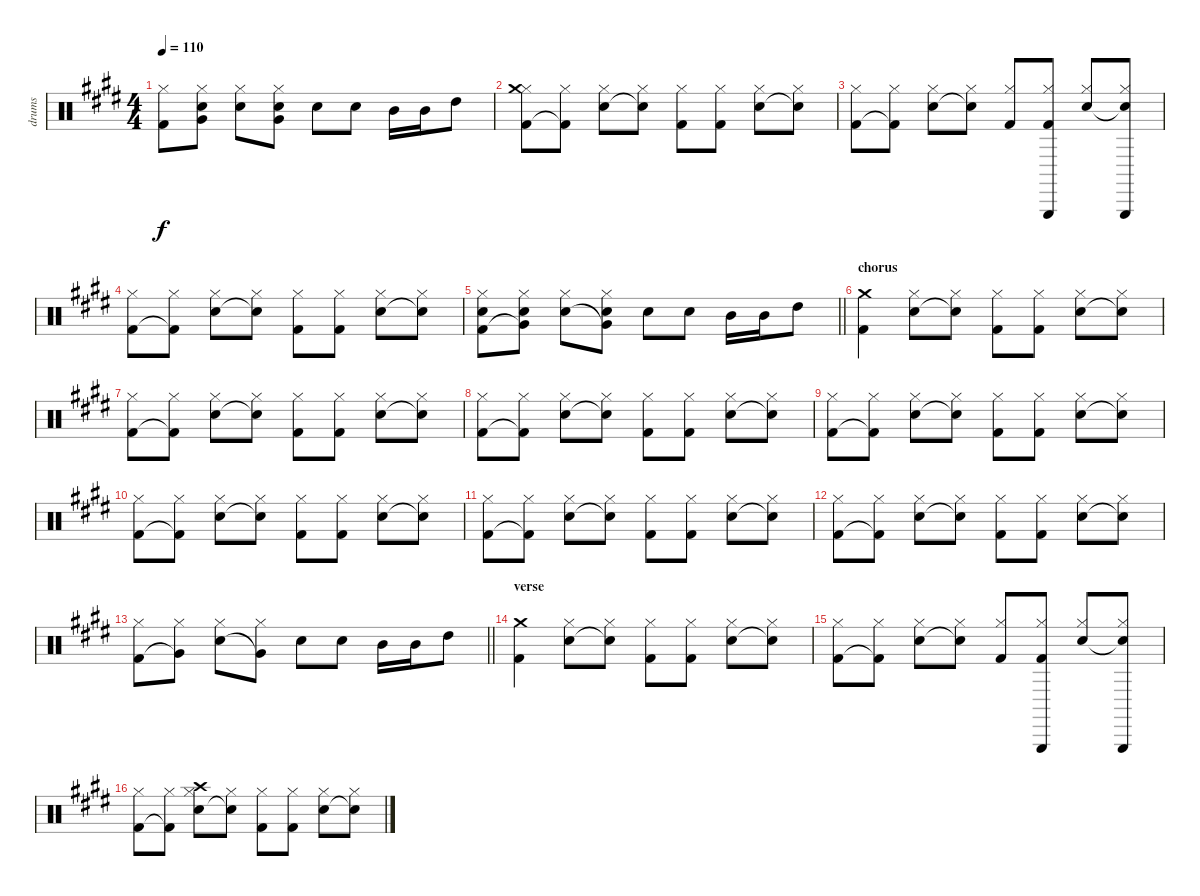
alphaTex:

\track ("drums" "drums") {instrument percussion}
\staff {score}
\articulation defaults
\ts (4 4)
\tempo 110
\clef neutral
\ks e
("Kick (hit) 2" "Hi-Hat (closed)").8{dy f} ("Very Low Tom (hit)" "Hi-Hat (closed)" "Electric Snare (hit)").8 ("Electric Snare (hit)" "Hi-Hat (closed)").8 ("Very Low Tom (hit)" "Hi-Hat (closed)" "Electric Snare (hit)").8 "Electric Snare (hit)".8 "Electric Snare (hit)".8 "Mid Tom (hit)".16 "Mid Tom (hit)".16 "High Tom (hit)".8 |
("Kick (hit) 2" "Hi-Hat (closed)" "Crash medium (hit)").8 ("Kick (hit) 2"{t} "Hi-Hat (closed)").8 ("Electric Snare (hit)" "Hi-Hat (closed)").8 ("Snare (hit)"{t} "Hi-Hat (closed)").8 ("Kick (hit) 2" "Hi-Hat (closed)").8 ("Kick (hit) 2" "Hi-Hat (closed)").8 ("Electric Snare (hit)" "Hi-Hat (closed)").8 ("Snare (hit)"{t} "Hi-Hat (closed)").8 |
("Kick (hit) 2" "Hi-Hat (closed)").8 ("Kick (hit) 2"{t} "Hi-Hat (closed)").8 ("Electric Snare (hit)" "Hi-Hat (closed)").8 ("Snare (hit)"{t} "Hi-Hat (closed)").8 ("Kick (hit) 2" "Hi-Hat (closed)").8 ("Kick (hit) 2" "Hi-Hat (closed)" "Triangle (hit)").8 ("Electric Snare (hit)" "Hi-Hat (closed)").8 ("Snare (hit)"{t} "Hi-Hat (closed)" "Triangle (hit)").8 |
("Kick (hit) 2" "Hi-Hat (closed)").8 ("Kick (hit) 2"{t} "Hi-Hat (closed)").8 ("Electric Snare (hit)" "Hi-Hat (closed)").8 ("Snare (hit)"{t} "Hi-Hat (closed)").8 ("Kick (hit) 2" "Hi-Hat (closed)").8 ("Kick (hit) 2" "Hi-Hat (closed)").8 ("Electric Snare (hit)" "Hi-Hat (closed)").8 ("Snare (hit)"{t} "Hi-Hat (closed)").8 |
\barLineRight lightlight
("Kick (hit) 2" "Hi-Hat (closed)" "Electric Snare (hit)").8 ("Very Low Tom (hit)"{t} "Hi-Hat (closed)" "Electric Snare (hit)").8 ("Electric Snare (hit)" "Hi-Hat (closed)").8 ("Very Low Tom (hit)"{t} "Hi-Hat (closed)" "Electric Snare (hit)").8 "Electric Snare (hit)".8 "Electric Snare (hit)".8 "Mid Tom (hit)".16 "Mid Tom (hit)".16 "High Tom (hit)".8 |
\section ("" "chorus")
("Kick (hit) 2" "Crash medium (hit)").4 ("Electric Snare (hit)" "Hi-Hat (closed)").8 ("Snare (hit)"{t} "Hi-Hat (closed)").8 ("Kick (hit) 2" "Hi-Hat (closed)").8 ("Kick (hit) 2" "Hi-Hat (closed)").8 ("Electric Snare (hit)" "Hi-Hat (closed)").8 ("Snare (hit)"{t} "Hi-Hat (closed)").8 |
("Kick (hit) 2" "Hi-Hat (closed)").8 ("Kick (hit) 2"{t} "Hi-Hat (closed)").8 ("Electric Snare (hit)" "Hi-Hat (closed)").8 ("Snare (hit)"{t} "Hi-Hat (closed)").8 ("Kick (hit) 2" "Hi-Hat (closed)").8 ("Kick (hit) 2" "Hi-Hat (closed)").8 ("Electric Snare (hit)" "Hi-Hat (closed)").8 ("Snare (hit)"{t} "Hi-Hat (closed)").8 |
("Kick (hit) 2" "Hi-Hat (closed)").8 ("Kick (hit) 2"{t} "Hi-Hat (closed)").8 ("Electric Snare (hit)" "Hi-Hat (closed)").8 ("Snare (hit)"{t} "Hi-Hat (closed)").8 ("Kick (hit) 2" "Hi-Hat (closed)").8 ("Kick (hit) 2" "Hi-Hat (closed)").8 ("Electric Snare (hit)" "Hi-Hat (closed)").8 ("Snare (hit)"{t} "Hi-Hat (closed)").8 |
("Kick (hit) 2" "Hi-Hat (closed)").8 ("Kick (hit) 2"{t} "Hi-Hat (closed)").8 ("Electric Snare (hit)" "Hi-Hat (closed)").8 ("Snare (hit)"{t} "Hi-Hat (closed)").8 ("Kick (hit) 2" "Hi-Hat (closed)").8 ("Kick (hit) 2" "Hi-Hat (closed)").8 ("Electric Snare (hit)" "Hi-Hat (closed)").8 ("Snare (hit)"{t} "Hi-Hat (closed)").8 |
("Kick (hit) 2" "Hi-Hat (closed)").8 ("Kick (hit) 2"{t} "Hi-Hat (closed)").8 ("Electric Snare (hit)" "Hi-Hat (closed)").8 ("Snare (hit)"{t} "Hi-Hat (closed)").8 ("Kick (hit) 2" "Hi-Hat (closed)").8 ("Kick (hit) 2" "Hi-Hat (closed)").8 ("Electric Snare (hit)" "Hi-Hat (closed)").8 ("Snare (hit)"{t} "Hi-Hat (closed)").8 |
("Kick (hit) 2" "Hi-Hat (closed)").8 ("Kick (hit) 2"{t} "Hi-Hat (closed)").8 ("Electric Snare (hit)" "Hi-Hat (closed)").8 ("Snare (hit)"{t} "Hi-Hat (closed)").8 ("Kick (hit) 2" "Hi-Hat (closed)").8 ("Kick (hit) 2" "Hi-Hat (closed)").8 ("Electric Snare (hit)" "Hi-Hat (closed)").8 ("Snare (hit)"{t} "Hi-Hat (closed)").8 |
("Kick (hit) 2" "Hi-Hat (closed)").8 ("Kick (hit) 2"{t} "Hi-Hat (closed)").8 ("Electric Snare (hit)" "Hi-Hat (closed)").8 ("Snare (hit)"{t} "Hi-Hat (closed)").8 ("Kick (hit) 2" "Hi-Hat (closed)").8 ("Kick (hit) 2" "Hi-Hat (closed)").8 ("Electric Snare (hit)" "Hi-Hat (closed)").8 ("Snare (hit)"{t} "Hi-Hat (closed)").8 |
\barLineRight lightlight
("Kick (hit) 2" "Hi-Hat (closed)").8 ("Very Low Tom (hit)"{t} "Hi-Hat (closed)").8 ("Electric Snare (hit)" "Hi-Hat (closed)").8 ("Very Low Tom (hit)"{t} "Hi-Hat (closed)").8 "Electric Snare (hit)".8 "Electric Snare (hit)".8 "Mid Tom (hit)".16 "Mid Tom (hit)".16 "High Tom (hit)".8 |
\section ("" "verse")
("Kick (hit) 2" "Crash medium (hit)").4 ("Electric Snare (hit)" "Hi-Hat (closed)").8 ("Snare (hit)"{t} "Hi-Hat (closed)").8 ("Kick (hit) 2" "Hi-Hat (closed)").8 ("Kick (hit) 2" "Hi-Hat (closed)").8 ("Electric Snare (hit)" "Hi-Hat (closed)").8 ("Snare (hit)"{t} "Hi-Hat (closed)").8 |
("Kick (hit) 2" "Hi-Hat (closed)").8 ("Kick (hit) 2"{t} "Hi-Hat (closed)").8 ("Electric Snare (hit)" "Hi-Hat (closed)").8 ("Snare (hit)"{t} "Hi-Hat (closed)").8 ("Kick (hit) 2" "Hi-Hat (closed)").8 ("Kick (hit) 2" "Hi-Hat (closed)" "Triangle (hit)").8 ("Electric Snare (hit)" "Hi-Hat (closed)").8 ("Snare (hit)"{t} "Hi-Hat (closed)" "Triangle (hit)").8 |
("Kick (hit) 2" "Hi-Hat (closed)").8 ("Kick (hit) 2"{t} "Hi-Hat (closed)").8 ("Electric Snare (hit)" "Hi-Hat (closed)" "Crash high (hit)").8 ("Snare (hit)"{t} "Hi-Hat (closed)").8 ("Kick (hit) 2" "Hi-Hat (closed)").8 ("Kick (hit) 2" "Hi-Hat (closed)").8 ("Electric Snare (hit)" "Hi-Hat (closed)").8 ("Snare (hit)"{t} "Hi-Hat (closed)").8
